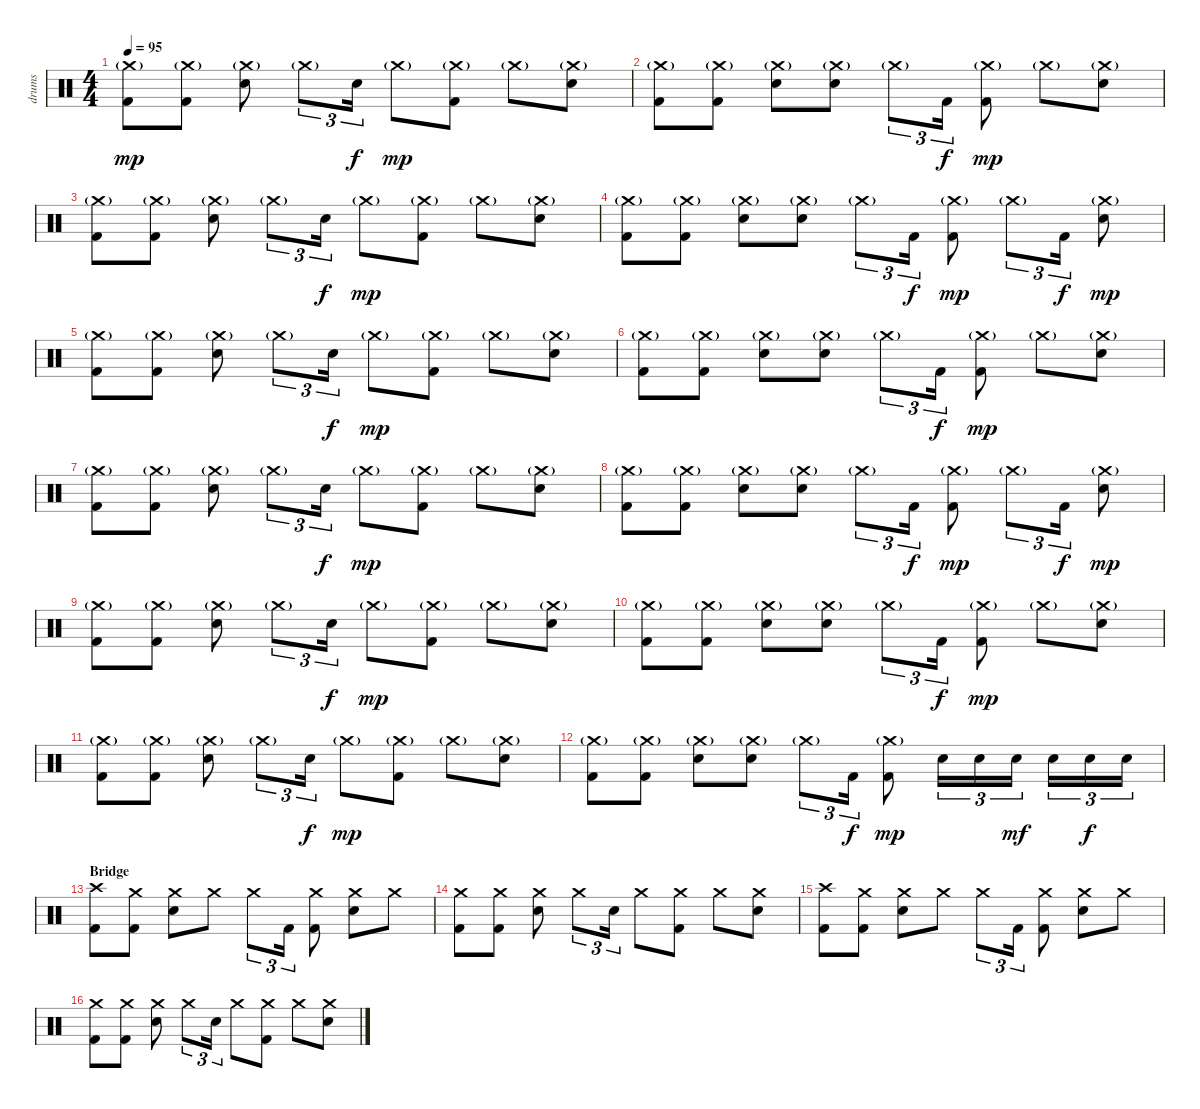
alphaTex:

\track ("drums" "drums") {instrument percussion}
\staff {score}
\articulation defaults
\ts (4 4)
\tempo 95
\clef neutral
\ks c
("Crash medium (hit)"{g} "Kick (hit) 2").8{dy mp} ("Crash medium (hit)"{g} "Kick (hit) 2").8 ("Crash medium (hit)"{g} "Electric Snare (hit)").8 "Crash medium (hit)"{g}.8{tu (3 2)} "Electric Snare (hit)".16{tu (3 2) dy f} "Crash medium (hit)"{g}.8{dy mp} ("Crash medium (hit)"{g} "Kick (hit) 2").8 "Crash medium (hit)"{g}.8 ("Crash medium (hit)"{g} "Electric Snare (hit)").8 |
("Crash medium (hit)"{g} "Kick (hit) 2").8 ("Crash medium (hit)"{g} "Kick (hit) 2").8 ("Crash medium (hit)"{g} "Electric Snare (hit)").8 ("Crash medium (hit)"{g} "Electric Snare (hit)").8 "Crash medium (hit)"{g}.8{tu (3 2)} "Kick (hit) 2".16{tu (3 2) dy f} ("Crash medium (hit)"{g} "Kick (hit) 2").8{dy mp} "Crash medium (hit)"{g}.8 ("Crash medium (hit)"{g} "Electric Snare (hit)").8 |
("Crash medium (hit)"{g} "Kick (hit) 2").8 ("Crash medium (hit)"{g} "Kick (hit) 2").8 ("Crash medium (hit)"{g} "Electric Snare (hit)").8 "Crash medium (hit)"{g}.8{tu (3 2)} "Electric Snare (hit)".16{tu (3 2) dy f} "Crash medium (hit)"{g}.8{dy mp} ("Crash medium (hit)"{g} "Kick (hit) 2").8 "Crash medium (hit)"{g}.8 ("Crash medium (hit)"{g} "Electric Snare (hit)").8 |
("Crash medium (hit)"{g} "Kick (hit) 2").8 ("Crash medium (hit)"{g} "Kick (hit) 2").8 ("Crash medium (hit)"{g} "Electric Snare (hit)").8 ("Crash medium (hit)"{g} "Electric Snare (hit)").8 "Crash medium (hit)"{g}.8{tu (3 2)} "Kick (hit) 2".16{tu (3 2) dy f} ("Crash medium (hit)"{g} "Kick (hit) 2").8{dy mp} "Crash medium (hit)"{g}.8{tu (3 2)} "Kick (hit) 2".16{tu (3 2) dy f} ("Crash medium (hit)"{g} "Electric Snare (hit)").8{dy mp} |
("Crash medium (hit)"{g} "Kick (hit) 2").8 ("Crash medium (hit)"{g} "Kick (hit) 2").8 ("Crash medium (hit)"{g} "Electric Snare (hit)").8 "Crash medium (hit)"{g}.8{tu (3 2)} "Electric Snare (hit)".16{tu (3 2) dy f} "Crash medium (hit)"{g}.8{dy mp} ("Crash medium (hit)"{g} "Kick (hit) 2").8 "Crash medium (hit)"{g}.8 ("Crash medium (hit)"{g} "Electric Snare (hit)").8 |
("Crash medium (hit)"{g} "Kick (hit) 2").8 ("Crash medium (hit)"{g} "Kick (hit) 2").8 ("Crash medium (hit)"{g} "Electric Snare (hit)").8 ("Crash medium (hit)"{g} "Electric Snare (hit)").8 "Crash medium (hit)"{g}.8{tu (3 2)} "Kick (hit) 2".16{tu (3 2) dy f} ("Crash medium (hit)"{g} "Kick (hit) 2").8{dy mp} "Crash medium (hit)"{g}.8 ("Crash medium (hit)"{g} "Electric Snare (hit)").8 |
("Crash medium (hit)"{g} "Kick (hit) 2").8 ("Crash medium (hit)"{g} "Kick (hit) 2").8 ("Crash medium (hit)"{g} "Electric Snare (hit)").8 "Crash medium (hit)"{g}.8{tu (3 2)} "Electric Snare (hit)".16{tu (3 2) dy f} "Crash medium (hit)"{g}.8{dy mp} ("Crash medium (hit)"{g} "Kick (hit) 2").8 "Crash medium (hit)"{g}.8 ("Crash medium (hit)"{g} "Electric Snare (hit)").8 |
("Crash medium (hit)"{g} "Kick (hit) 2").8 ("Crash medium (hit)"{g} "Kick (hit) 2").8 ("Crash medium (hit)"{g} "Electric Snare (hit)").8 ("Crash medium (hit)"{g} "Electric Snare (hit)").8 "Crash medium (hit)"{g}.8{tu (3 2)} "Kick (hit) 2".16{tu (3 2) dy f} ("Crash medium (hit)"{g} "Kick (hit) 2").8{dy mp} "Crash medium (hit)"{g}.8{tu (3 2)} "Kick (hit) 2".16{tu (3 2) dy f} ("Crash medium (hit)"{g} "Electric Snare (hit)").8{dy mp} |
("Crash medium (hit)"{g} "Kick (hit) 2").8 ("Crash medium (hit)"{g} "Kick (hit) 2").8 ("Crash medium (hit)"{g} "Electric Snare (hit)").8 "Crash medium (hit)"{g}.8{tu (3 2)} "Electric Snare (hit)".16{tu (3 2) dy f} "Crash medium (hit)"{g}.8{dy mp} ("Crash medium (hit)"{g} "Kick (hit) 2").8 "Crash medium (hit)"{g}.8 ("Crash medium (hit)"{g} "Electric Snare (hit)").8 |
("Crash medium (hit)"{g} "Kick (hit) 2").8 ("Crash medium (hit)"{g} "Kick (hit) 2").8 ("Crash medium (hit)"{g} "Electric Snare (hit)").8 ("Crash medium (hit)"{g} "Electric Snare (hit)").8 "Crash medium (hit)"{g}.8{tu (3 2)} "Kick (hit) 2".16{tu (3 2) dy f} ("Crash medium (hit)"{g} "Kick (hit) 2").8{dy mp} "Crash medium (hit)"{g}.8 ("Crash medium (hit)"{g} "Electric Snare (hit)").8 |
("Crash medium (hit)"{g} "Kick (hit) 2").8 ("Crash medium (hit)"{g} "Kick (hit) 2").8 ("Crash medium (hit)"{g} "Electric Snare (hit)").8 "Crash medium (hit)"{g}.8{tu (3 2)} "Electric Snare (hit)".16{tu (3 2) dy f} "Crash medium (hit)"{g}.8{dy mp} ("Crash medium (hit)"{g} "Kick (hit) 2").8 "Crash medium (hit)"{g}.8 ("Crash medium (hit)"{g} "Electric Snare (hit)").8 |
("Crash medium (hit)"{g} "Kick (hit) 2").8 ("Crash medium (hit)"{g} "Kick (hit) 2").8 ("Crash medium (hit)"{g} "Electric Snare (hit)").8 ("Crash medium (hit)"{g} "Electric Snare (hit)").8 "Crash medium (hit)"{g}.8{tu (3 2)} "Kick (hit) 2".16{tu (3 2) dy f} ("Crash medium (hit)"{g} "Kick (hit) 2").8{dy mp} "Electric Snare (hit)".16{tu (3 2)} "Electric Snare (hit)".16{tu (3 2)} "Electric Snare (hit)".16{tu (3 2) dy mf} "Electric Snare (hit)".16{tu (3 2)} "Electric Snare (hit)".16{tu (3 2) dy f} "Electric Snare (hit)".16{tu (3 2)} |
\section ("" "Bridge")
("Crash high (hit)" "Kick (hit) 2").8 ("Crash medium (hit)" "Kick (hit) 2").8 ("Crash medium (hit)" "Electric Snare (hit)").8 "Crash medium (hit)".8 "Crash medium (hit)".8{tu (3 2)} "Kick (hit) 2".16{tu (3 2)} ("Crash medium (hit)" "Kick (hit) 2").8 ("Crash medium (hit)" "Electric Snare (hit)").8 "Crash medium (hit)".8 |
("Crash medium (hit)" "Kick (hit) 2").8 ("Crash medium (hit)" "Kick (hit) 2").8 ("Crash medium (hit)" "Electric Snare (hit)").8 "Crash medium (hit)".8{tu (3 2)} "Electric Snare (hit)".16{tu (3 2)} "Crash medium (hit)".8 ("Crash medium (hit)" "Kick (hit) 2").8 "Crash medium (hit)".8 ("Crash medium (hit)" "Electric Snare (hit)").8 |
("Crash high (hit)" "Kick (hit) 2").8 ("Crash medium (hit)" "Kick (hit) 2").8 ("Crash medium (hit)" "Electric Snare (hit)").8 "Crash medium (hit)".8 "Crash medium (hit)".8{tu (3 2)} "Kick (hit) 2".16{tu (3 2)} ("Crash medium (hit)" "Kick (hit) 2").8 ("Crash medium (hit)" "Electric Snare (hit)").8 "Crash medium (hit)".8 |
("Crash medium (hit)" "Kick (hit) 2").8 ("Crash medium (hit)" "Kick (hit) 2").8 ("Crash medium (hit)" "Electric Snare (hit)").8 "Crash medium (hit)".8{tu (3 2)} "Electric Snare (hit)".16{tu (3 2)} "Crash medium (hit)".8 ("Crash medium (hit)" "Kick (hit) 2").8 "Crash medium (hit)".8 ("Crash medium (hit)" "Electric Snare (hit)").8
